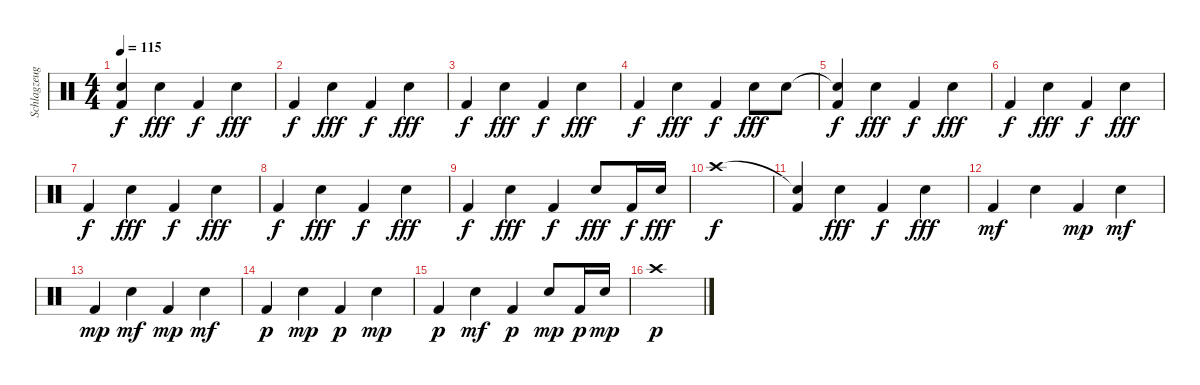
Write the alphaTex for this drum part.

\track ("Schlagzeug" "Schlagzeug") {instrument percussion}
\staff {score}
\articulation defaults
\ts (4 4)
\tempo 115
\clef neutral
\ks c
("Snare (hit)"{t} "Kick (hit) 2").4{dy f} "Electric Snare (hit)".4{dy fff} "Kick (hit) 2".4{dy f} "Electric Snare (hit)".4{dy fff} |
"Kick (hit) 2".4{dy f} "Electric Snare (hit)".4{dy fff} "Kick (hit) 2".4{dy f} "Electric Snare (hit)".4{dy fff} |
"Kick (hit) 2".4{dy f} "Electric Snare (hit)".4{dy fff} "Kick (hit) 2".4{dy f} "Electric Snare (hit)".4{dy fff} |
"Kick (hit) 2".4{dy f} "Electric Snare (hit)".4{dy fff} "Kick (hit) 2".4{dy f} "Electric Snare (hit)".8{dy fff} "Electric Snare (hit)".8 |
("Snare (hit)"{t} "Kick (hit) 2").4{dy f} "Electric Snare (hit)".4{dy fff} "Kick (hit) 2".4{dy f} "Electric Snare (hit)".4{dy fff} |
"Kick (hit) 2".4{dy f} "Electric Snare (hit)".4{dy fff} "Kick (hit) 2".4{dy f} "Electric Snare (hit)".4{dy fff} |
"Kick (hit) 2".4{dy f} "Electric Snare (hit)".4{dy fff} "Kick (hit) 2".4{dy f} "Electric Snare (hit)".4{dy fff} |
"Kick (hit) 2".4{dy f} "Electric Snare (hit)".4{dy fff} "Kick (hit) 2".4{dy f} "Electric Snare (hit)".4{dy fff} |
"Kick (hit) 2".4{dy f} "Electric Snare (hit)".4{dy fff} "Kick (hit) 2".4{dy f} "Electric Snare (hit)".8{dy fff} "Kick (hit) 2".16{dy f} "Electric Snare (hit)".16{dy fff} |
"Crash high (hit)".1{dy f} |
("Snare (hit)"{t} "Kick (hit) 2").4 "Electric Snare (hit)".4{dy fff} "Kick (hit) 2".4{dy f} "Electric Snare (hit)".4{dy fff} |
"Kick (hit) 2".4{dy mf} "Electric Snare (hit)".4 "Kick (hit) 2".4{dy mp} "Electric Snare (hit)".4{dy mf} |
"Kick (hit) 2".4{dy mp} "Electric Snare (hit)".4{dy mf} "Kick (hit) 2".4{dy mp} "Electric Snare (hit)".4{dy mf} |
"Kick (hit) 2".4{dy p} "Electric Snare (hit)".4{dy mp} "Kick (hit) 2".4{dy p} "Electric Snare (hit)".4{dy mp} |
"Kick (hit) 2".4{dy p} "Electric Snare (hit)".4{dy mf} "Kick (hit) 2".4{dy p} "Electric Snare (hit)".8{dy mp} "Kick (hit) 2".16{dy p} "Electric Snare (hit)".16{dy mp} |
"Crash high (hit)".1{dy p}
